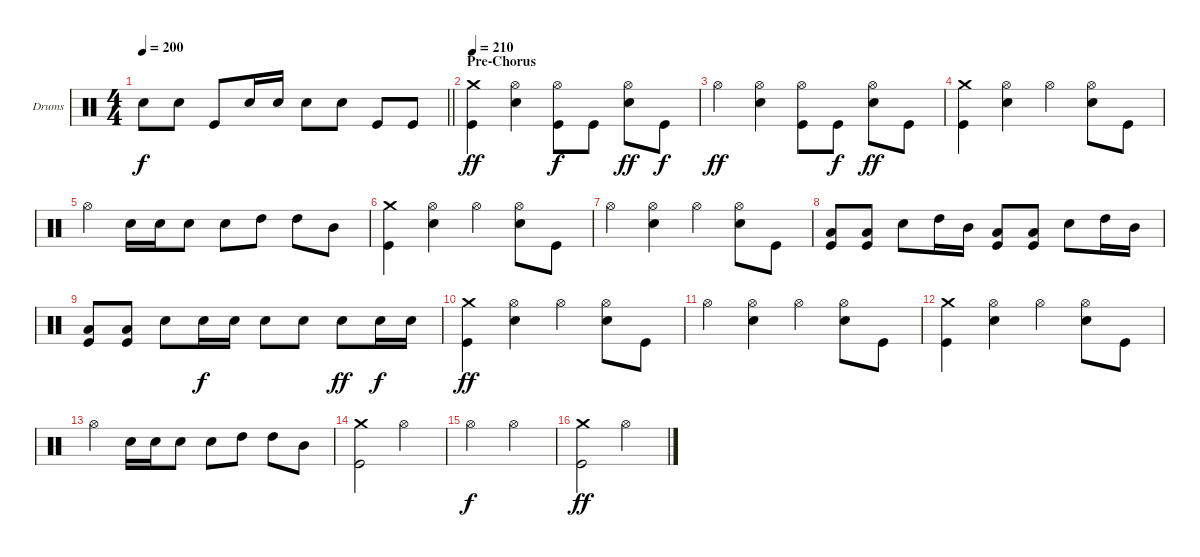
\bracketExtendMode groupsimilarinstruments
\firstSystemTrackNameOrientation horizontal
\otherSystemsTrackNameOrientation horizontal
\track ("Drumkit" "Drums") {instrument percussion}
\staff {score}
\articulation defaults
\ts (4 4)
\tempo 200
\clef neutral
\barLineRight lightlight
\ks c "Snare (hit) 2".8{dy f} "Snare (hit) 2".8 "Kick (hit)".8 "Snare (hit) 2".16 "Snare (hit) 2".16 "Snare (hit) 2".8 "Snare (hit) 2".8 "Kick (hit)".8 "Kick (hit)".8
|
\section ("" "Pre-Chorus")
\tempo 210
("Crash medium (hit)" "Kick (hit)").4{dy ff} ("Hi-Hat (open)" "Snare (hit) 2").4 ("Hi-Hat (open)" "Kick (hit)").8{dy f} "Kick (hit)".8 ("Hi-Hat (open)" "Snare (hit) 2").8{dy ff} "Kick (hit)".8{dy f} |
"Hi-Hat (open)".4{dy ff} ("Hi-Hat (open)" "Snare (hit) 2").4 ("Hi-Hat (open)" "Kick (hit)").8 "Kick (hit)".8{dy f} ("Hi-Hat (open)" "Snare (hit) 2").8{dy ff} "Kick (hit)".8 |
("Crash medium (hit)" "Kick (hit)").4 ("Hi-Hat (open)" "Snare (hit) 2").4 "Hi-Hat (open)".4 ("Hi-Hat (open)" "Snare (hit) 2").8 "Kick (hit)".8 |
"Hi-Hat (open)".4 "Snare (hit) 2".16 "Snare (hit) 2".16 "Snare (hit) 2".8 "Snare (hit) 2".8 "High Tom (hit)".8 "High Tom (hit)".8 "Mid Tom (hit)".8 |
("Crash medium (hit)" "Kick (hit)").4 ("Hi-Hat (open)" "Snare (hit) 2").4 "Hi-Hat (open)".4 ("Hi-Hat (open)" "Snare (hit) 2").8 "Kick (hit)".8 |
"Hi-Hat (open)".4 ("Hi-Hat (open)" "Snare (hit) 2").4 "Hi-Hat (open)".4 ("Hi-Hat (open)" "Snare (hit) 2").8 "Kick (hit)".8 |
("Low Tom (hit)" "Kick (hit)").8 ("Low Tom (hit)" "Kick (hit)").8 "Snare (hit) 2".8 "High Tom (hit)".16 "Mid Tom (hit)".16 ("Low Tom (hit)" "Kick (hit)").8 ("Low Tom (hit)" "Kick (hit)").8 "Snare (hit) 2".8 "High Tom (hit)".16 "Mid Tom (hit)".16 |
("Low Tom (hit)" "Kick (hit)").8 ("Low Tom (hit)" "Kick (hit)").8 "Snare (hit) 2".8 "Snare (hit) 2".16{dy f} "Snare (hit) 2".16 "Snare (hit) 2".8 "Snare (hit) 2".8 "Snare (hit) 2".8{dy ff} "Snare (hit) 2".16{dy f} "Snare (hit) 2".16 |
("Crash medium (hit)" "Kick (hit)").4{dy ff} ("Hi-Hat (open)" "Snare (hit) 2").4 "Hi-Hat (open)".4 ("Hi-Hat (open)" "Snare (hit) 2").8 "Kick (hit)".8 |
"Hi-Hat (open)".4 ("Hi-Hat (open)" "Snare (hit) 2").4 "Hi-Hat (open)".4 ("Hi-Hat (open)" "Snare (hit) 2").8 "Kick (hit)".8 |
("Crash medium (hit)" "Kick (hit)").4 ("Hi-Hat (open)" "Snare (hit) 2").4 "Hi-Hat (open)".4 ("Hi-Hat (open)" "Snare (hit) 2").8 "Kick (hit)".8 |
"Hi-Hat (open)".4 "Snare (hit) 2".16 "Snare (hit) 2".16 "Snare (hit) 2".8 "Snare (hit) 2".8 "High Tom (hit)".8 "High Tom (hit)".8 "Mid Tom (hit)".8 |
("Crash medium (hit)" "Kick (hit)").2 "Hi-Hat (open)".2 |
"Hi-Hat (open)".2{dy f} "Hi-Hat (open)".2 |
("Crash medium (hit)" "Kick (hit)").2{dy ff} "Hi-Hat (open)".2
